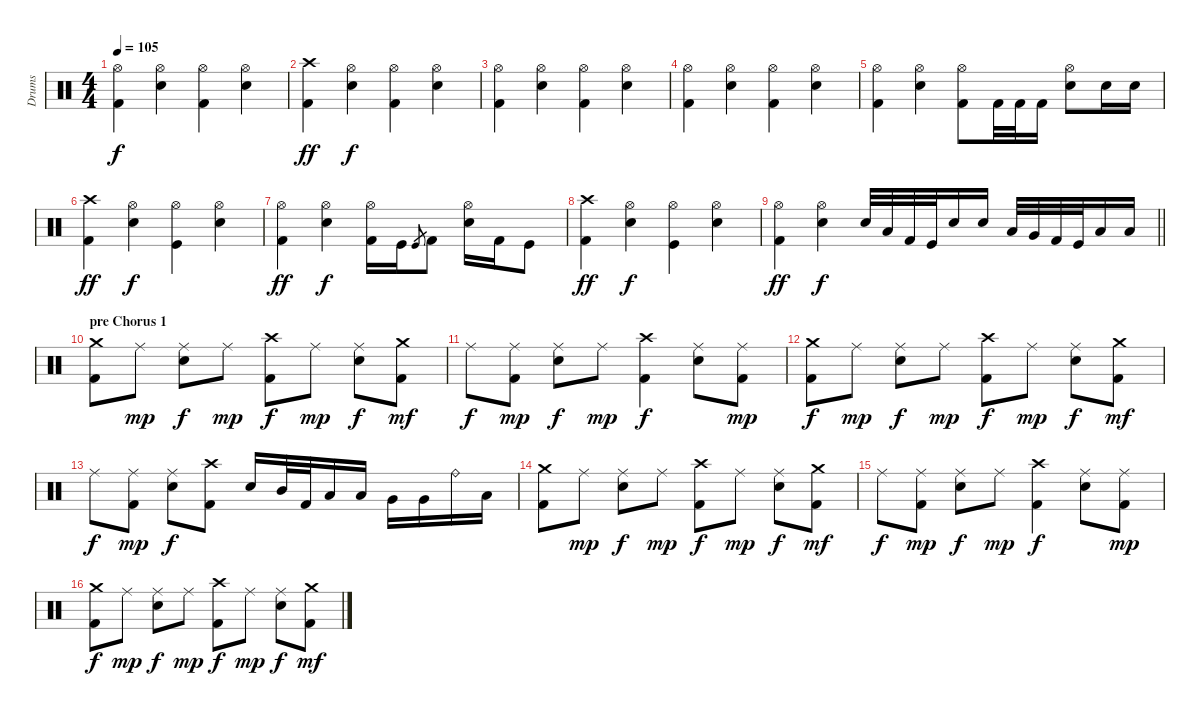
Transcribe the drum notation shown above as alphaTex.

\track ("Drums" "Drums") {instrument percussion}
\staff {score}
\articulation defaults
\ts (4 4)
\tempo 105
\clef neutral
\ks c
("Hi-Hat (open)" "Kick (hit) 2").4{dy f} ("Hi-Hat (open)" "Snare (hit) 2").4 ("Hi-Hat (open)" "Kick (hit) 2").4 ("Hi-Hat (open)" "Snare (hit) 2").4 |
("Crash high (hit)" "Kick (hit) 2").4{dy ff} ("Hi-Hat (open)" "Snare (hit) 2").4{dy f} ("Hi-Hat (open)" "Kick (hit) 2").4 ("Hi-Hat (open)" "Snare (hit) 2").4 |
("Hi-Hat (open)" "Kick (hit) 2").4 ("Hi-Hat (open)" "Snare (hit) 2").4 ("Hi-Hat (open)" "Kick (hit) 2").4 ("Hi-Hat (open)" "Snare (hit) 2").4 |
("Hi-Hat (open)" "Kick (hit) 2").4 ("Hi-Hat (open)" "Snare (hit) 2").4 ("Hi-Hat (open)" "Kick (hit) 2").4 ("Hi-Hat (open)" "Snare (hit) 2").4 |
("Hi-Hat (open)" "Kick (hit) 2").4 ("Hi-Hat (open)" "Snare (hit) 2").4 ("Hi-Hat (open)" "Kick (hit) 2").8 "Kick (hit) 2".32 "Kick (hit) 2".32 "Kick (hit) 2".16 ("Hi-Hat (open)" "Snare (hit) 2").8 "Snare (hit) 2".16 "Snare (hit) 2".16 |
("Crash high (hit)" "Kick (hit) 2").4{dy ff} ("Hi-Hat (open)" "Snare (hit) 2").4{dy f} ("Hi-Hat (open)" "Kick (hit)").4 ("Hi-Hat (open)" "Snare (hit) 2").4 |
("Hi-Hat (open)" "Kick (hit) 2").4{dy ff} ("Hi-Hat (open)" "Snare (hit) 2").4{dy f} ("Hi-Hat (open)" "Kick (hit) 2").16 "Kick (hit)".16 "Kick (hit)".8{gr} "Kick (hit) 2".8 ("Hi-Hat (open)" "Snare (hit) 2").16 "Kick (hit) 2".16 "Kick (hit)".8 |
("Crash high (hit)" "Kick (hit) 2").4{dy ff} ("Hi-Hat (open)" "Snare (hit) 2").4{dy f} ("Hi-Hat (open)" "Kick (hit)").4 ("Hi-Hat (open)" "Snare (hit) 2").4 |
\barLineRight lightlight
("Hi-Hat (open)" "Kick (hit) 2").4{dy ff} ("Hi-Hat (open)" "Snare (hit) 2").4{dy f} "Snare (hit) 2".32 "Low Tom (hit)".32 "Kick (hit) 2".32 "Kick (hit)".32 "Snare (hit) 2".16 "Snare (hit) 2".16 "Low Tom (hit)".32 "Very Low Tom (hit)".32 "Kick (hit) 2".32 "Kick (hit)".32 "Low Floor Tom (hit)".16 "Low Floor Tom (hit)".16 |
\section ("" "pre Chorus 1")
("Crash medium (hit)" "Kick (hit) 2").8 "Ride (middle)".8{dy mp} ("Ride (middle)" "Snare (hit) 2").8{dy f} "Ride (middle)".8{dy mp} ("Crash high (hit)" "Kick (hit) 2").8{dy f} "Ride (middle)".8{dy mp} ("Ride (middle)" "Snare (hit) 2").8{dy f} ("Crash medium (hit)" "Kick (hit) 2").8{dy mf} |
"Ride (middle)".8{dy f} ("Ride (middle)" "Kick (hit) 2").8{dy mp} ("Ride (middle)" "Snare (hit) 2").8{dy f} "Ride (middle)".8{dy mp} ("Crash high (hit)" "Kick (hit) 2").4{dy f} ("Ride (middle)" "Snare (hit) 2").8 ("Ride (middle)" "Kick (hit) 2").8{dy mp} |
("Crash medium (hit)" "Kick (hit) 2").8{dy f} "Ride (middle)".8{dy mp} ("Ride (middle)" "Snare (hit) 2").8{dy f} "Ride (middle)".8{dy mp} ("Crash high (hit)" "Kick (hit) 2").8{dy f} "Ride (middle)".8{dy mp} ("Ride (middle)" "Snare (hit) 2").8{dy f} ("Crash medium (hit)" "Kick (hit) 2").8{dy mf} |
"Ride (middle)".8{dy f} ("Ride (middle)" "Kick (hit) 2").8{dy mp} ("Ride (middle)" "Snare (hit) 2").8{dy f} ("Crash high (hit)" "Kick (hit) 2").8 "Snare (hit) 2".16 "Mid Tom (hit)".32 "Kick (hit) 2".32 "Low Tom (hit)".16 "Low Tom (hit)".16 "Very Low Tom (hit)".16 "Very Low Tom (hit)".16 "Ride (bell)".16 "Low Floor Tom (hit)".16 |
("Crash medium (hit)" "Kick (hit) 2").8 "Ride (middle)".8{dy mp} ("Ride (middle)" "Snare (hit) 2").8{dy f} "Ride (middle)".8{dy mp} ("Crash high (hit)" "Kick (hit) 2").8{dy f} "Ride (middle)".8{dy mp} ("Ride (middle)" "Snare (hit) 2").8{dy f} ("Crash medium (hit)" "Kick (hit) 2").8{dy mf} |
"Ride (middle)".8{dy f} ("Ride (middle)" "Kick (hit) 2").8{dy mp} ("Ride (middle)" "Snare (hit) 2").8{dy f} "Ride (middle)".8{dy mp} ("Crash high (hit)" "Kick (hit) 2").4{dy f} ("Ride (middle)" "Snare (hit) 2").8 ("Ride (middle)" "Kick (hit) 2").8{dy mp} |
("Crash medium (hit)" "Kick (hit) 2").8{dy f} "Ride (middle)".8{dy mp} ("Ride (middle)" "Snare (hit) 2").8{dy f} "Ride (middle)".8{dy mp} ("Crash high (hit)" "Kick (hit) 2").8{dy f} "Ride (middle)".8{dy mp} ("Ride (middle)" "Snare (hit) 2").8{dy f} ("Crash medium (hit)" "Kick (hit) 2").8{dy mf}
